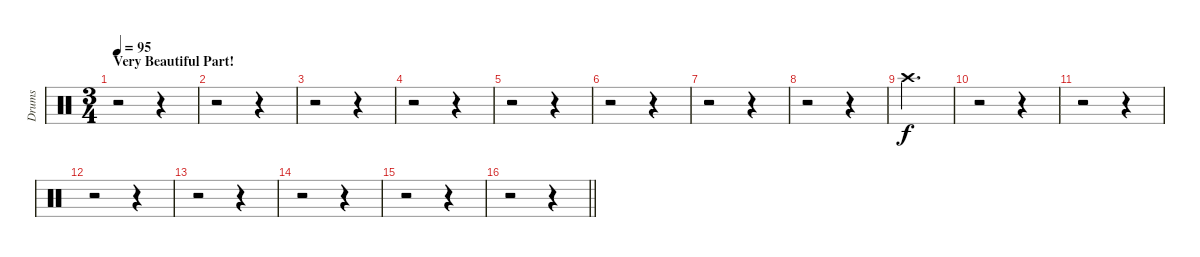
\track ("Drums" "Drums") {instrument percussion}
\staff {score}
\articulation defaults
\ts (3 4)
\section ("" "Very Beautiful Part!")
\tempo 95
\clef neutral
\ks c
r.2{dy f} r.4 |
r.2 r.4 |
r.2 r.4 |
r.2 r.4 |
r.2 r.4 |
r.2 r.4 |
r.2 r.4 |
r.2 r.4 |
"Crash high (hit)".2{d} |
r.2 r.4 |
r.2 r.4 |
r.2 r.4 |
r.2 r.4 |
r.2 r.4 |
r.2 r.4 |
\barLineRight lightlight
r.2 r.4
